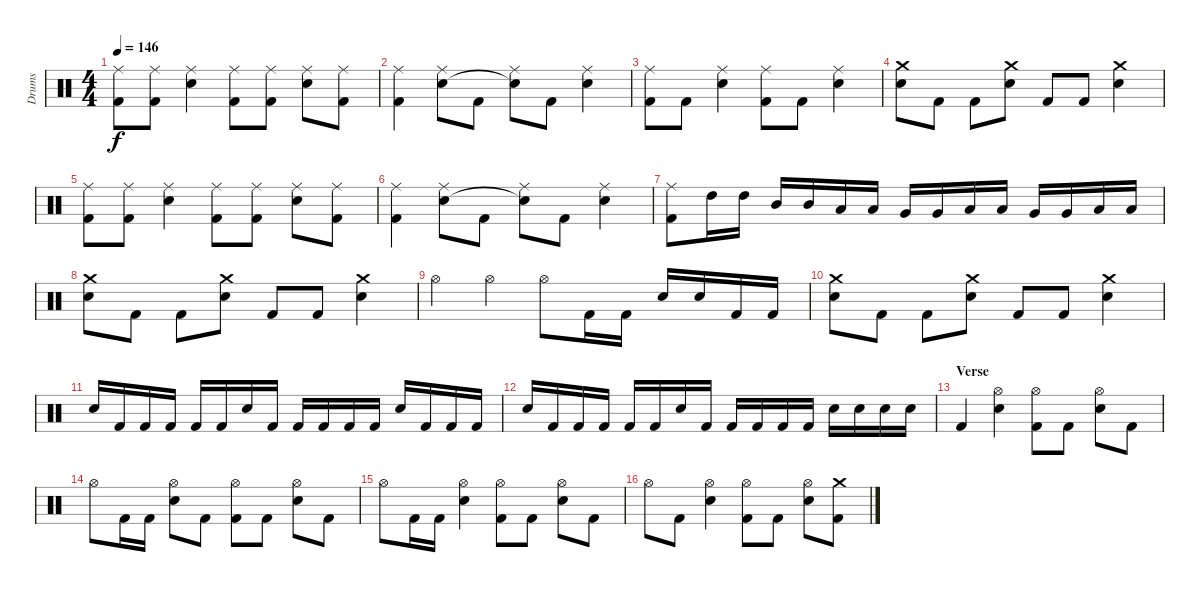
\track ("Drums" "Drums") {instrument percussion}
\staff {score}
\articulation defaults
\ts (4 4)
\tempo 146
\clef neutral
\ks c
("Ride (middle)" "Kick (hit) 2").8{dy f} ("Ride (middle)" "Kick (hit) 2").8 ("Ride (middle)" "Electric Snare (hit)").4 ("Ride (middle)" "Kick (hit) 2").8 ("Ride (middle)" "Kick (hit) 2").8 ("Ride (middle)" "Electric Snare (hit)").8 ("Ride (middle)" "Kick (hit) 2").8 |
("Ride (middle)" "Kick (hit) 2").4 ("Ride (middle)" "Electric Snare (hit)").8 "Kick (hit) 2".8 ("Ride (middle)" "Snare (hit)"{t}).8 "Kick (hit) 2".8 ("Ride (middle)" "Electric Snare (hit)").4 |
("Ride (middle)" "Kick (hit) 2").8 "Kick (hit) 2".8 ("Ride (middle)" "Electric Snare (hit)").4 ("Ride (middle)" "Kick (hit) 2").8 "Kick (hit) 2".8 ("Ride (middle)" "Electric Snare (hit)").4 |
("Crash medium (hit)" "Electric Snare (hit)").8 "Kick (hit) 2".8 "Kick (hit) 2".8 ("Crash medium (hit)" "Electric Snare (hit)").8 "Kick (hit) 2".8 "Kick (hit) 2".8 ("Crash medium (hit)" "Electric Snare (hit)").4 |
("Ride (middle)" "Kick (hit) 2").8 ("Ride (middle)" "Kick (hit) 2").8 ("Ride (middle)" "Electric Snare (hit)").4 ("Ride (middle)" "Kick (hit) 2").8 ("Ride (middle)" "Kick (hit) 2").8 ("Ride (middle)" "Electric Snare (hit)").8 ("Ride (middle)" "Kick (hit) 2").8 |
("Ride (middle)" "Kick (hit) 2").4 ("Ride (middle)" "Electric Snare (hit)").8 "Kick (hit) 2".8 ("Ride (middle)" "Snare (hit)"{t}).8 "Kick (hit) 2".8 ("Ride (middle)" "Electric Snare (hit)").4 |
("Ride (middle)" "Kick (hit) 2").8 "High Tom (hit)".16 "High Tom (hit)".16 "Mid Tom (hit)".16 "Mid Tom (hit)".16 "Low Tom (hit)".16 "Low Tom (hit)".16 "Very Low Tom (hit)".16 "Very Low Tom (hit)".16 "Low Floor Tom (hit)".16 "Low Floor Tom (hit)".16 "Very Low Tom (hit)".16 "Very Low Tom (hit)".16 "Low Tom (hit)".16 "Low Tom (hit)".16 |
("Crash medium (hit)" "Electric Snare (hit)").8 "Kick (hit) 2".8 "Kick (hit) 2".8 ("Crash medium (hit)" "Electric Snare (hit)").8 "Kick (hit) 2".8 "Kick (hit) 2".8 ("Crash medium (hit)" "Electric Snare (hit)").4 |
"Hi-Hat (open)".4 "Hi-Hat (open)".4 "Hi-Hat (open)".8 "Kick (hit) 2".16 "Kick (hit) 2".16 "Electric Snare (hit)".16 "Electric Snare (hit)".16 "Kick (hit) 2".16 "Kick (hit) 2".16 |
("Crash medium (hit)" "Electric Snare (hit)").8 "Kick (hit) 2".8 "Kick (hit) 2".8 ("Crash medium (hit)" "Electric Snare (hit)").8 "Kick (hit) 2".8 "Kick (hit) 2".8 ("Crash medium (hit)" "Electric Snare (hit)").4 |
"Electric Snare (hit)".16 "Kick (hit) 2".16 "Kick (hit) 2".16 "Kick (hit) 2".16 "Kick (hit) 2".16 "Kick (hit) 2".16 "Electric Snare (hit)".16 "Kick (hit) 2".16 "Kick (hit) 2".16 "Kick (hit) 2".16 "Kick (hit) 2".16 "Kick (hit) 2".16 "Electric Snare (hit)".16 "Kick (hit) 2".16 "Kick (hit) 2".16 "Kick (hit) 2".16 |
"Electric Snare (hit)".16 "Kick (hit) 2".16 "Kick (hit) 2".16 "Kick (hit) 2".16 "Kick (hit) 2".16 "Kick (hit) 2".16 "Electric Snare (hit)".16 "Kick (hit) 2".16 "Kick (hit) 2".16 "Kick (hit) 2".16 "Kick (hit) 2".16 "Kick (hit) 2".16 "Electric Snare (hit)".16 "Electric Snare (hit)".16 "Electric Snare (hit)".16 "Electric Snare (hit)".16 |
\section ("" "Verse")
"Kick (hit) 2".4 ("Hi-Hat (open)" "Electric Snare (hit)").4 ("Hi-Hat (open)" "Kick (hit) 2").8 "Kick (hit) 2".8 ("Hi-Hat (open)" "Electric Snare (hit)").8 "Kick (hit) 2".8 |
"Hi-Hat (open)".8 "Kick (hit) 2".16 "Kick (hit) 2".16 ("Hi-Hat (open)" "Electric Snare (hit)").8 "Kick (hit) 2".8 ("Hi-Hat (open)" "Kick (hit) 2").8 "Kick (hit) 2".8 ("Hi-Hat (open)" "Electric Snare (hit)").8 "Kick (hit) 2".8 |
"Hi-Hat (open)".8 "Kick (hit) 2".16 "Kick (hit) 2".16 ("Hi-Hat (open)" "Electric Snare (hit)").4 ("Hi-Hat (open)" "Kick (hit) 2").8 "Kick (hit) 2".8 ("Hi-Hat (open)" "Electric Snare (hit)").8 "Kick (hit) 2".8 |
"Hi-Hat (open)".8 "Kick (hit) 2".8 ("Hi-Hat (open)" "Electric Snare (hit)").4 ("Hi-Hat (open)" "Kick (hit) 2").8 "Kick (hit) 2".8 ("Hi-Hat (open)" "Electric Snare (hit)").8 ("Crash medium (hit)" "Kick (hit) 2").8
